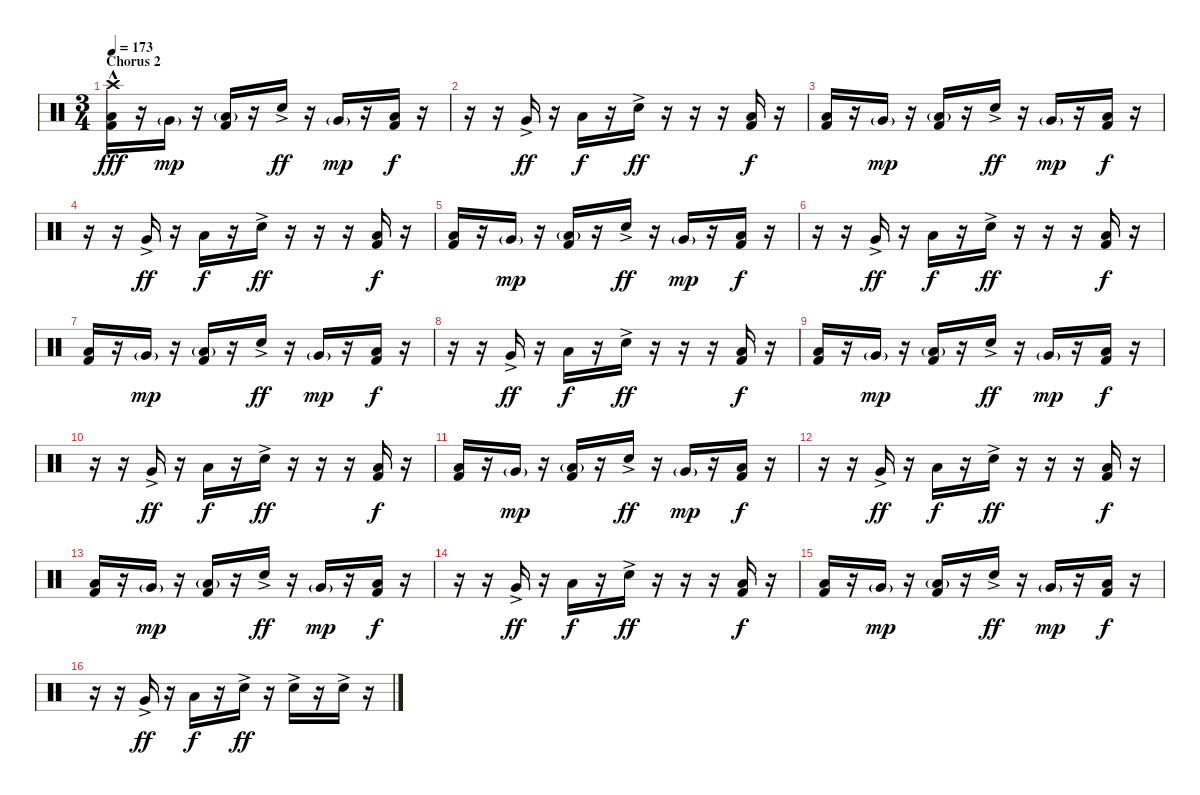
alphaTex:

\track (" " " ") {instrument percussion}
\staff {score}
\articulation defaults
\ts (3 4)
\section ("" "Chorus 2")
\tempo 173
\clef neutral
\ks c
("Crash high (hit)"{hac} "Low Floor Tom (hit)"{hac} "Kick (hit) 2"{hac}).16{dy fff} r.16 "Very Low Tom (hit)"{g}.16{dy mp} r.16 ("Low Floor Tom (hit)"{g} "Kick (hit) 2").16 r.16 "Electric Snare (hit)"{ac}.16{dy ff} r.16 "Very Low Tom (hit)"{g}.16{dy mp} r.16 ("Low Floor Tom (hit)" "Kick (hit) 2").16{dy f} r.16 |
r.16 r.16 "Very Low Tom (hit)"{ac}.16{dy ff} r.16 "Low Floor Tom (hit)".16{dy f} r.16 "Electric Snare (hit)"{ac}.16{dy ff} r.16 r.16 r.16 ("Low Floor Tom (hit)" "Kick (hit) 2").16{dy f} r.16 |
("Low Floor Tom (hit)" "Kick (hit) 2").16 r.16 "Very Low Tom (hit)"{g}.16{dy mp} r.16 ("Low Floor Tom (hit)"{g} "Kick (hit) 2").16 r.16 "Electric Snare (hit)"{ac}.16{dy ff} r.16 "Very Low Tom (hit)"{g}.16{dy mp} r.16 ("Low Floor Tom (hit)" "Kick (hit) 2").16{dy f} r.16 |
r.16 r.16 "Very Low Tom (hit)"{ac}.16{dy ff} r.16 "Low Floor Tom (hit)".16{dy f} r.16 "Electric Snare (hit)"{ac}.16{dy ff} r.16 r.16 r.16 ("Low Floor Tom (hit)" "Kick (hit) 2").16{dy f} r.16 |
("Low Floor Tom (hit)" "Kick (hit) 2").16 r.16 "Very Low Tom (hit)"{g}.16{dy mp} r.16 ("Low Floor Tom (hit)"{g} "Kick (hit) 2").16 r.16 "Electric Snare (hit)"{ac}.16{dy ff} r.16 "Very Low Tom (hit)"{g}.16{dy mp} r.16 ("Low Floor Tom (hit)" "Kick (hit) 2").16{dy f} r.16 |
r.16 r.16 "Very Low Tom (hit)"{ac}.16{dy ff} r.16 "Low Floor Tom (hit)".16{dy f} r.16 "Electric Snare (hit)"{ac}.16{dy ff} r.16 r.16 r.16 ("Low Floor Tom (hit)" "Kick (hit) 2").16{dy f} r.16 |
("Low Floor Tom (hit)" "Kick (hit) 2").16 r.16 "Very Low Tom (hit)"{g}.16{dy mp} r.16 ("Low Floor Tom (hit)"{g} "Kick (hit) 2").16 r.16 "Electric Snare (hit)"{ac}.16{dy ff} r.16 "Very Low Tom (hit)"{g}.16{dy mp} r.16 ("Low Floor Tom (hit)" "Kick (hit) 2").16{dy f} r.16 |
r.16 r.16 "Very Low Tom (hit)"{ac}.16{dy ff} r.16 "Low Floor Tom (hit)".16{dy f} r.16 "Electric Snare (hit)"{ac}.16{dy ff} r.16 r.16 r.16 ("Low Floor Tom (hit)" "Kick (hit) 2").16{dy f} r.16 |
("Low Floor Tom (hit)" "Kick (hit) 2").16 r.16 "Very Low Tom (hit)"{g}.16{dy mp} r.16 ("Low Floor Tom (hit)"{g} "Kick (hit) 2").16 r.16 "Electric Snare (hit)"{ac}.16{dy ff} r.16 "Very Low Tom (hit)"{g}.16{dy mp} r.16 ("Low Floor Tom (hit)" "Kick (hit) 2").16{dy f} r.16 |
r.16 r.16 "Very Low Tom (hit)"{ac}.16{dy ff} r.16 "Low Floor Tom (hit)".16{dy f} r.16 "Electric Snare (hit)"{ac}.16{dy ff} r.16 r.16 r.16 ("Low Floor Tom (hit)" "Kick (hit) 2").16{dy f} r.16 |
("Low Floor Tom (hit)" "Kick (hit) 2").16 r.16 "Very Low Tom (hit)"{g}.16{dy mp} r.16 ("Low Floor Tom (hit)"{g} "Kick (hit) 2").16 r.16 "Electric Snare (hit)"{ac}.16{dy ff} r.16 "Very Low Tom (hit)"{g}.16{dy mp} r.16 ("Low Floor Tom (hit)" "Kick (hit) 2").16{dy f} r.16 |
r.16 r.16 "Very Low Tom (hit)"{ac}.16{dy ff} r.16 "Low Floor Tom (hit)".16{dy f} r.16 "Electric Snare (hit)"{ac}.16{dy ff} r.16 r.16 r.16 ("Low Floor Tom (hit)" "Kick (hit) 2").16{dy f} r.16 |
("Low Floor Tom (hit)" "Kick (hit) 2").16 r.16 "Very Low Tom (hit)"{g}.16{dy mp} r.16 ("Low Floor Tom (hit)"{g} "Kick (hit) 2").16 r.16 "Electric Snare (hit)"{ac}.16{dy ff} r.16 "Very Low Tom (hit)"{g}.16{dy mp} r.16 ("Low Floor Tom (hit)" "Kick (hit) 2").16{dy f} r.16 |
r.16 r.16 "Very Low Tom (hit)"{ac}.16{dy ff} r.16 "Low Floor Tom (hit)".16{dy f} r.16 "Electric Snare (hit)"{ac}.16{dy ff} r.16 r.16 r.16 ("Low Floor Tom (hit)" "Kick (hit) 2").16{dy f} r.16 |
("Low Floor Tom (hit)" "Kick (hit) 2").16 r.16 "Very Low Tom (hit)"{g}.16{dy mp} r.16 ("Low Floor Tom (hit)"{g} "Kick (hit) 2").16 r.16 "Electric Snare (hit)"{ac}.16{dy ff} r.16 "Very Low Tom (hit)"{g}.16{dy mp} r.16 ("Low Floor Tom (hit)" "Kick (hit) 2").16{dy f} r.16 |
r.16 r.16 "Very Low Tom (hit)"{ac}.16{dy ff} r.16 "Low Floor Tom (hit)".16{dy f} r.16 "Electric Snare (hit)"{ac}.16{dy ff} r.16 "Electric Snare (hit)"{ac}.16 r.16 "Electric Snare (hit)"{ac}.16 r.16
